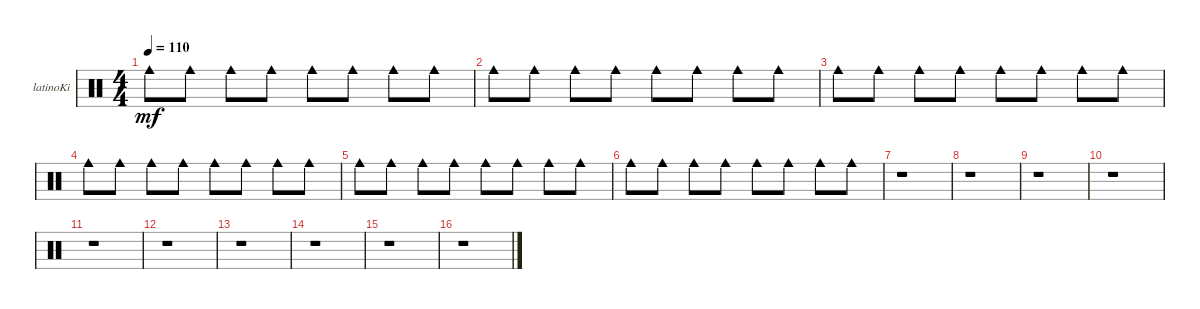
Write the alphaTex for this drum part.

\defaultSystemsLayout 4
\bracketExtendMode groupsimilarinstruments
\firstSystemTrackNameOrientation horizontal
\otherSystemsTrackNameOrientation horizontal
\track ("Tambourine" "latinoKi") {instrument percussion}
\staff {score}
\articulation defaults
\ts (4 4)
\tempo 110
\clef neutral
\ks c "Cowbell medium (hit)".8{dy mf} "Cowbell medium (hit)".8 "Cowbell medium (hit)".8 "Cowbell medium (hit)".8 "Cowbell medium (hit)".8 "Cowbell medium (hit)".8 "Cowbell medium (hit)".8 "Cowbell medium (hit)".8
|
"Cowbell medium (hit)".8 "Cowbell medium (hit)".8 "Cowbell medium (hit)".8 "Cowbell medium (hit)".8 "Cowbell medium (hit)".8 "Cowbell medium (hit)".8 "Cowbell medium (hit)".8 "Cowbell medium (hit)".8 |
"Cowbell medium (hit)".8 "Cowbell medium (hit)".8 "Cowbell medium (hit)".8 "Cowbell medium (hit)".8 "Cowbell medium (hit)".8 "Cowbell medium (hit)".8 "Cowbell medium (hit)".8 "Cowbell medium (hit)".8 |
"Cowbell medium (hit)".8 "Cowbell medium (hit)".8 "Cowbell medium (hit)".8 "Cowbell medium (hit)".8 "Cowbell medium (hit)".8 "Cowbell medium (hit)".8 "Cowbell medium (hit)".8 "Cowbell medium (hit)".8 |
"Cowbell medium (hit)".8 "Cowbell medium (hit)".8 "Cowbell medium (hit)".8 "Cowbell medium (hit)".8 "Cowbell medium (hit)".8 "Cowbell medium (hit)".8 "Cowbell medium (hit)".8 "Cowbell medium (hit)".8 |
"Cowbell medium (hit)".8 "Cowbell medium (hit)".8 "Cowbell medium (hit)".8 "Cowbell medium (hit)".8 "Cowbell medium (hit)".8 "Cowbell medium (hit)".8 "Cowbell medium (hit)".8 "Cowbell medium (hit)".8 |
r.1 |
r.1 |
r.1 |
r.1 |
r.1 |
r.1 |
r.1 |
r.1 |
r.1 |
r.1
